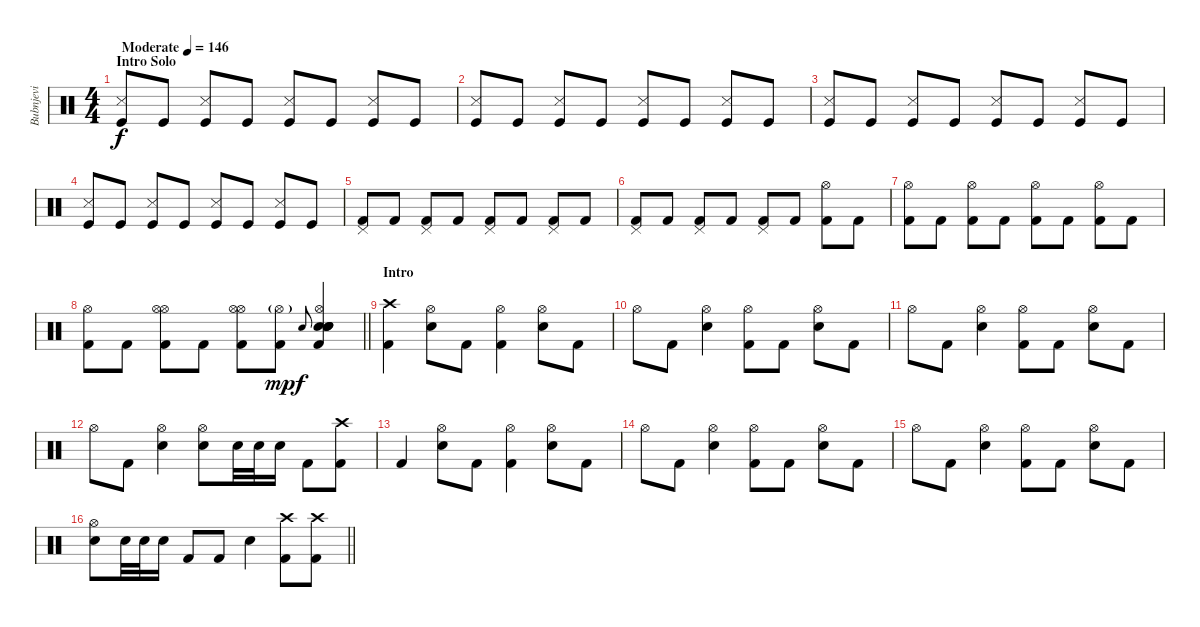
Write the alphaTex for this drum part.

\track ("Bubnjevi" "Bubnjevi") {instrument percussion}
\staff {score}
\articulation defaults
\ts (4 4)
\section ("" "Intro Solo")
\tempo (146 "Moderate")
\clef neutral
\ks c
("Snare (side stick) 3" "Kick (hit)").8{dy f} "Kick (hit)".8 ("Snare (side stick) 3" "Kick (hit)").8 "Kick (hit)".8 ("Snare (side stick) 3" "Kick (hit)").8 "Kick (hit)".8 ("Snare (side stick) 3" "Kick (hit)").8 "Kick (hit)".8 |
("Snare (side stick) 3" "Kick (hit)").8 "Kick (hit)".8 ("Snare (side stick) 3" "Kick (hit)").8 "Kick (hit)".8 ("Snare (side stick) 3" "Kick (hit)").8 "Kick (hit)".8 ("Snare (side stick) 3" "Kick (hit)").8 "Kick (hit)".8 |
("Snare (side stick) 3" "Kick (hit)").8 "Kick (hit)".8 ("Snare (side stick) 3" "Kick (hit)").8 "Kick (hit)".8 ("Snare (side stick) 3" "Kick (hit)").8 "Kick (hit)".8 ("Snare (side stick) 3" "Kick (hit)").8 "Kick (hit)".8 |
("Snare (side stick) 3" "Kick (hit)").8 "Kick (hit)".8 ("Snare (side stick) 3" "Kick (hit)").8 "Kick (hit)".8 ("Snare (side stick) 3" "Kick (hit)").8 "Kick (hit)".8 ("Snare (side stick) 3" "Kick (hit)").8 "Kick (hit)".8 |
("Pedal Hi-Hat (hit)" "Kick (hit) 2").8 "Kick (hit) 2".8 ("Pedal Hi-Hat (hit)" "Kick (hit) 2").8 "Kick (hit) 2".8 ("Pedal Hi-Hat (hit)" "Kick (hit) 2").8 "Kick (hit) 2".8 ("Pedal Hi-Hat (hit)" "Kick (hit) 2").8 "Kick (hit) 2".8 |
("Pedal Hi-Hat (hit)" "Kick (hit) 2").8 "Kick (hit) 2".8 ("Pedal Hi-Hat (hit)" "Kick (hit) 2").8 "Kick (hit) 2".8 ("Pedal Hi-Hat (hit)" "Kick (hit) 2").8 "Kick (hit) 2".8 ("Hi-Hat (open)" "Kick (hit) 2").8 "Kick (hit) 2".8 |
("Hi-Hat (open)" "Kick (hit) 2").8 "Kick (hit) 2".8 ("Hi-Hat (open)" "Kick (hit) 2").8 "Kick (hit) 2".8 ("Hi-Hat (open)" "Kick (hit) 2").8 "Kick (hit) 2".8 ("Hi-Hat (open)" "Kick (hit) 2").8 "Kick (hit) 2".8 |
\barLineRight lightlight
("Hi-Hat (open)" "Kick (hit) 2").8 "Kick (hit) 2".8 ("Hi-Hat (open)" "Hi-Hat (open)" "Kick (hit) 2").8 "Kick (hit) 2".8 ("Hi-Hat (open)" "Hi-Hat (open)" "Kick (hit) 2").8 ("Hi-Hat (open)"{g} "Kick (hit) 2").8{dy mp} "Electric Snare (hit)"{x}.8{gr onbeat dy f} ("Snare (hit) 2" "Snare (hit) 2" "Snare (hit) 2" "Electric Snare (hit)" "Kick (hit) 2" "Hi-Hat (open)").4 |
\section ("" "Intro")
("Crash high (hit)" "Kick (hit) 2").4 ("Hi-Hat (open)" "Electric Snare (hit)").8 "Kick (hit) 2".8 ("Hi-Hat (open)" "Kick (hit) 2").4 ("Hi-Hat (open)" "Electric Snare (hit)").8 "Kick (hit) 2".8 |
"Hi-Hat (open)".8 "Kick (hit) 2".8 ("Hi-Hat (open)" "Electric Snare (hit)").4 ("Hi-Hat (open)" "Kick (hit) 2").8 "Kick (hit) 2".8 ("Hi-Hat (open)" "Electric Snare (hit)").8 "Kick (hit) 2".8 |
"Hi-Hat (open)".8 "Kick (hit) 2".8 ("Hi-Hat (open)" "Electric Snare (hit)").4 ("Hi-Hat (open)" "Kick (hit) 2").8 "Kick (hit) 2".8 ("Hi-Hat (open)" "Electric Snare (hit)").8 "Kick (hit) 2".8 |
"Hi-Hat (open)".8 "Kick (hit) 2".8 ("Hi-Hat (open)" "Electric Snare (hit)").4 ("Hi-Hat (open)" "Snare (hit) 2").8 "Snare (hit) 2".32 "Snare (hit) 2".32 "Snare (hit) 2".16 "Kick (hit) 2".8 ("Crash high (hit)" "Kick (hit) 2").8 |
"Kick (hit) 2".4 ("Hi-Hat (open)" "Electric Snare (hit)").8 "Kick (hit) 2".8 ("Hi-Hat (open)" "Kick (hit) 2").4 ("Hi-Hat (open)" "Electric Snare (hit)").8 "Kick (hit) 2".8 |
"Hi-Hat (open)".8 "Kick (hit) 2".8 ("Hi-Hat (open)" "Electric Snare (hit)").4 ("Hi-Hat (open)" "Kick (hit) 2").8 "Kick (hit) 2".8 ("Hi-Hat (open)" "Electric Snare (hit)").8 "Kick (hit) 2".8 |
"Hi-Hat (open)".8 "Kick (hit) 2".8 ("Hi-Hat (open)" "Electric Snare (hit)").4 ("Hi-Hat (open)" "Kick (hit) 2").8 "Kick (hit) 2".8 ("Hi-Hat (open)" "Electric Snare (hit)").8 "Kick (hit) 2".8 |
\barLineRight lightlight
("Hi-Hat (open)" "Snare (hit) 2").8 "Snare (hit) 2".32 "Snare (hit) 2".32 "Snare (hit) 2".16 "Kick (hit) 2".8 "Kick (hit) 2".8 "Snare (hit) 2".4 ("Crash high (hit)" "Kick (hit) 2").8 ("Crash high (hit)" "Kick (hit) 2").8
